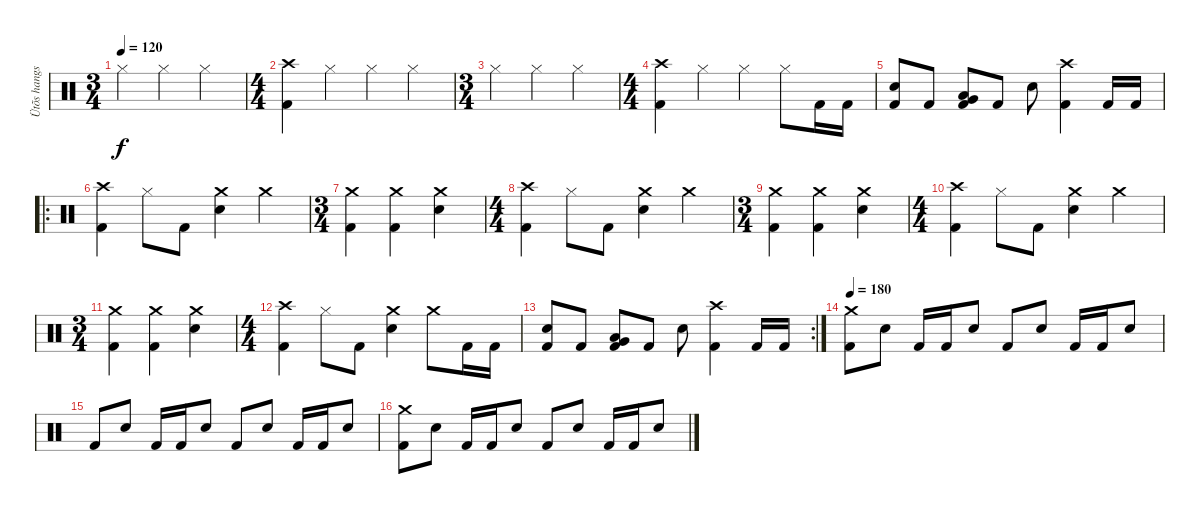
\track ("Ütõs hangszer" "Ütõs hangs") {instrument percussion}
\staff {score}
\articulation defaults
\ts (3 4)
\tempo 120
\clef neutral
\ks c "Hi-Hat (closed)".4{dy f} "Hi-Hat (closed)".4 "Hi-Hat (closed)".4
|
\ts (4 4)
("Crash high (hit)" "Kick (hit) 2").4 "Hi-Hat (closed)".4 "Hi-Hat (closed)".4 "Hi-Hat (closed)".4 |
\ts (3 4)
"Hi-Hat (closed)".4 "Hi-Hat (closed)".4 "Hi-Hat (closed)".4 |
\ts (4 4)
("Crash high (hit)" "Kick (hit) 2").4 "Hi-Hat (closed)".4 "Hi-Hat (closed)".4 "Hi-Hat (closed)".8 "Kick (hit) 2".16 "Kick (hit) 2".16 |
("Snare (hit) 2" "Kick (hit) 2").8 "Kick (hit) 2".8 ("Low Tom (hit)" "Very Low Tom (hit)" "Kick (hit) 2").8 "Kick (hit) 2".8 "Snare (hit) 2".8 ("Crash high (hit)" "Kick (hit) 2").4 "Kick (hit) 2".16 "Kick (hit) 2".16 |
\ro
("Crash high (hit)" "Kick (hit) 2").4 "Hi-Hat (closed)".8 "Kick (hit) 2".8 ("Crash medium (hit)" "Snare (hit) 2").4 "Crash medium (hit)".4 |
\ts (3 4)
("Crash medium (hit)" "Kick (hit) 2").4 ("Crash medium (hit)" "Kick (hit) 2").4 ("Crash medium (hit)" "Snare (hit) 2").4 |
\ts (4 4)
("Crash high (hit)" "Kick (hit) 2").4 "Hi-Hat (closed)".8 "Kick (hit) 2".8 ("Crash medium (hit)" "Snare (hit) 2").4 "Crash medium (hit)".4 |
\ts (3 4)
("Crash medium (hit)" "Kick (hit) 2").4 ("Crash medium (hit)" "Kick (hit) 2").4 ("Crash medium (hit)" "Snare (hit) 2").4 |
\ts (4 4)
("Crash high (hit)" "Kick (hit) 2").4 "Hi-Hat (closed)".8 "Kick (hit) 2".8 ("Crash medium (hit)" "Snare (hit) 2").4 "Crash medium (hit)".4 |
\ts (3 4)
("Crash medium (hit)" "Kick (hit) 2").4 ("Crash medium (hit)" "Kick (hit) 2").4 ("Crash medium (hit)" "Snare (hit) 2").4 |
\ts (4 4)
("Crash high (hit)" "Kick (hit) 2").4 "Hi-Hat (closed)".8 "Kick (hit) 2".8 ("Crash medium (hit)" "Snare (hit) 2").4 "Crash medium (hit)".8 "Kick (hit) 2".16 "Kick (hit) 2".16 |
\rc 2
("Snare (hit) 2" "Kick (hit) 2").8 "Kick (hit) 2".8 ("Low Tom (hit)" "Very Low Tom (hit)" "Kick (hit) 2").8 "Kick (hit) 2".8 "Snare (hit) 2".8 ("Crash high (hit)" "Kick (hit) 2").4 "Kick (hit) 2".16 "Kick (hit) 2".16 |
\tempo 180
("Crash medium (hit)" "Kick (hit) 2").8 "Snare (hit) 2".8 "Kick (hit) 2".16 "Kick (hit) 2".16 "Snare (hit) 2".8 "Kick (hit) 2".8 "Snare (hit) 2".8 "Kick (hit) 2".16 "Kick (hit) 2".16 "Snare (hit) 2".8 |
"Kick (hit) 2".8 "Snare (hit) 2".8 "Kick (hit) 2".16 "Kick (hit) 2".16 "Snare (hit) 2".8 "Kick (hit) 2".8 "Snare (hit) 2".8 "Kick (hit) 2".16 "Kick (hit) 2".16 "Snare (hit) 2".8 |
("Crash medium (hit)" "Kick (hit) 2").8 "Snare (hit) 2".8 "Kick (hit) 2".16 "Kick (hit) 2".16 "Snare (hit) 2".8 "Kick (hit) 2".8 "Snare (hit) 2".8 "Kick (hit) 2".16 "Kick (hit) 2".16 "Snare (hit) 2".8
